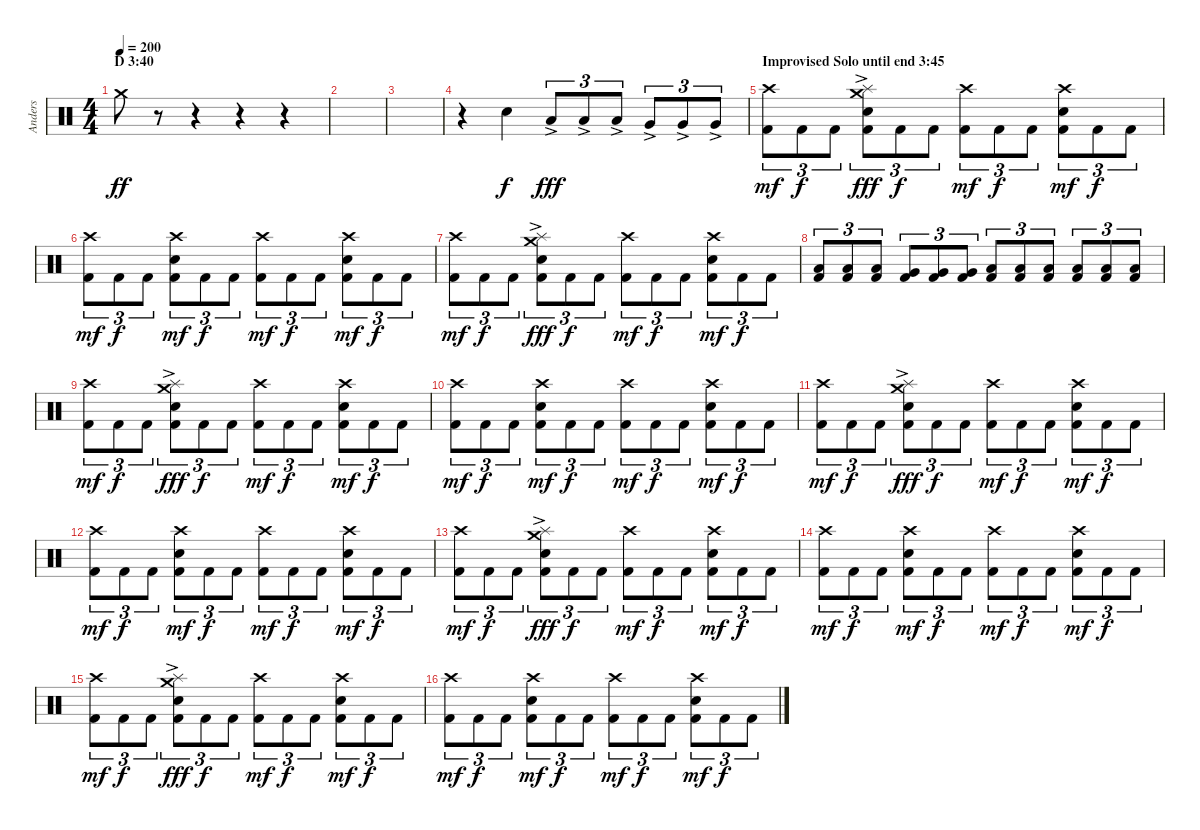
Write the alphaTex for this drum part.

\track ("Anders" "Anders") {instrument percussion}
\staff {score}
\articulation defaults
\ts (4 4)
\section ("" "D 3:40")
\tempo 200
\clef neutral
\ks c "Crash medium (hit)".8{dy ff}
r.8{volume 0} r.4 r.4 r.4 |
|
|
r.4{volume 16} "Electric Snare (hit)".4{dy f} "Low Tom (hit)"{ac}.8{tu (3 2) dy fff} "Low Tom (hit)"{ac}.8{tu (3 2)} "Low Tom (hit)"{ac}.8{tu (3 2)} "Very Low Tom (hit)"{ac}.8{tu (3 2)} "Very Low Tom (hit)"{ac}.8{tu (3 2)} "Very Low Tom (hit)"{ac}.8{tu (3 2)} |
\section ("" "Improvised Solo until end 3:45")
("Kick (hit) 2" "Crash high (hit)").8{tu (3 2) dy mf} "Kick (hit) 2".8{tu (3 2) dy f} "Kick (hit) 2".8{tu (3 2)} ("Kick (hit) 2" "Electric Snare (hit)" "Splash (hit)" "Crash medium (hit)"{ac}).8{tu (3 2) dy fff} "Kick (hit) 2".8{tu (3 2) dy f} "Kick (hit) 2".8{tu (3 2)} ("Kick (hit) 2" "Crash high (hit)").8{tu (3 2) dy mf} "Kick (hit) 2".8{tu (3 2) dy f} "Kick (hit) 2".8{tu (3 2)} ("Kick (hit) 2" "Electric Snare (hit)" "Crash high (hit)").8{tu (3 2) dy mf} "Kick (hit) 2".8{tu (3 2) dy f} "Kick (hit) 2".8{tu (3 2)} |
("Kick (hit) 2" "Crash high (hit)").8{tu (3 2) dy mf} "Kick (hit) 2".8{tu (3 2) dy f} "Kick (hit) 2".8{tu (3 2)} ("Kick (hit) 2" "Electric Snare (hit)" "Crash high (hit)").8{tu (3 2) dy mf} "Kick (hit) 2".8{tu (3 2) dy f} "Kick (hit) 2".8{tu (3 2)} ("Kick (hit) 2" "Crash high (hit)").8{tu (3 2) dy mf} "Kick (hit) 2".8{tu (3 2) dy f} "Kick (hit) 2".8{tu (3 2)} ("Kick (hit) 2" "Electric Snare (hit)" "Crash high (hit)").8{tu (3 2) dy mf} "Kick (hit) 2".8{tu (3 2) dy f} "Kick (hit) 2".8{tu (3 2)} |
("Kick (hit) 2" "Crash high (hit)").8{tu (3 2) dy mf} "Kick (hit) 2".8{tu (3 2) dy f} "Kick (hit) 2".8{tu (3 2)} ("Kick (hit) 2" "Electric Snare (hit)" "Splash (hit)" "Crash medium (hit)"{ac}).8{tu (3 2) dy fff} "Kick (hit) 2".8{tu (3 2) dy f} "Kick (hit) 2".8{tu (3 2)} ("Kick (hit) 2" "Crash high (hit)").8{tu (3 2) dy mf} "Kick (hit) 2".8{tu (3 2) dy f} "Kick (hit) 2".8{tu (3 2)} ("Kick (hit) 2" "Electric Snare (hit)" "Crash high (hit)").8{tu (3 2) dy mf} "Kick (hit) 2".8{tu (3 2) dy f} "Kick (hit) 2".8{tu (3 2)} |
("Kick (hit) 2" "Low Tom (hit)").8{tu (3 2)} ("Kick (hit) 2" "Low Tom (hit)").8{tu (3 2)} ("Kick (hit) 2" "Low Tom (hit)").8{tu (3 2)} ("Kick (hit) 2" "Very Low Tom (hit)").8{tu (3 2)} ("Kick (hit) 2" "Very Low Tom (hit)").8{tu (3 2)} ("Kick (hit) 2" "Very Low Tom (hit)").8{tu (3 2)} ("Kick (hit) 2" "Low Tom (hit)").8{tu (3 2)} ("Kick (hit) 2" "Low Tom (hit)").8{tu (3 2)} ("Kick (hit) 2" "Low Tom (hit)").8{tu (3 2)} ("Kick (hit) 2" "Low Floor Tom (hit)").8{tu (3 2)} ("Kick (hit) 2" "Low Floor Tom (hit)").8{tu (3 2)} ("Kick (hit) 2" "Low Floor Tom (hit)").8{tu (3 2)} |
("Kick (hit) 2" "Crash high (hit)").8{tu (3 2) dy mf} "Kick (hit) 2".8{tu (3 2) dy f} "Kick (hit) 2".8{tu (3 2)} ("Kick (hit) 2" "Electric Snare (hit)" "Splash (hit)" "Crash medium (hit)"{ac}).8{tu (3 2) dy fff} "Kick (hit) 2".8{tu (3 2) dy f} "Kick (hit) 2".8{tu (3 2)} ("Kick (hit) 2" "Crash high (hit)").8{tu (3 2) dy mf} "Kick (hit) 2".8{tu (3 2) dy f} "Kick (hit) 2".8{tu (3 2)} ("Kick (hit) 2" "Electric Snare (hit)" "Crash high (hit)").8{tu (3 2) dy mf} "Kick (hit) 2".8{tu (3 2) dy f} "Kick (hit) 2".8{tu (3 2)} |
("Kick (hit) 2" "Crash high (hit)").8{tu (3 2) dy mf} "Kick (hit) 2".8{tu (3 2) dy f} "Kick (hit) 2".8{tu (3 2)} ("Kick (hit) 2" "Electric Snare (hit)" "Crash high (hit)").8{tu (3 2) dy mf} "Kick (hit) 2".8{tu (3 2) dy f} "Kick (hit) 2".8{tu (3 2)} ("Kick (hit) 2" "Crash high (hit)").8{tu (3 2) dy mf} "Kick (hit) 2".8{tu (3 2) dy f} "Kick (hit) 2".8{tu (3 2)} ("Kick (hit) 2" "Electric Snare (hit)" "Crash high (hit)").8{tu (3 2) dy mf} "Kick (hit) 2".8{tu (3 2) dy f} "Kick (hit) 2".8{tu (3 2)} |
("Kick (hit) 2" "Crash high (hit)").8{tu (3 2) dy mf} "Kick (hit) 2".8{tu (3 2) dy f} "Kick (hit) 2".8{tu (3 2)} ("Kick (hit) 2" "Electric Snare (hit)" "Splash (hit)" "Crash medium (hit)"{ac}).8{tu (3 2) dy fff} "Kick (hit) 2".8{tu (3 2) dy f} "Kick (hit) 2".8{tu (3 2)} ("Kick (hit) 2" "Crash high (hit)").8{tu (3 2) dy mf} "Kick (hit) 2".8{tu (3 2) dy f} "Kick (hit) 2".8{tu (3 2)} ("Kick (hit) 2" "Electric Snare (hit)" "Crash high (hit)").8{tu (3 2) dy mf} "Kick (hit) 2".8{tu (3 2) dy f} "Kick (hit) 2".8{tu (3 2)} |
("Kick (hit) 2" "Crash high (hit)").8{tu (3 2) dy mf} "Kick (hit) 2".8{tu (3 2) dy f} "Kick (hit) 2".8{tu (3 2)} ("Kick (hit) 2" "Electric Snare (hit)" "Crash high (hit)").8{tu (3 2) dy mf} "Kick (hit) 2".8{tu (3 2) dy f} "Kick (hit) 2".8{tu (3 2)} ("Kick (hit) 2" "Crash high (hit)").8{tu (3 2) dy mf} "Kick (hit) 2".8{tu (3 2) dy f} "Kick (hit) 2".8{tu (3 2)} ("Kick (hit) 2" "Electric Snare (hit)" "Crash high (hit)").8{tu (3 2) dy mf} "Kick (hit) 2".8{tu (3 2) dy f} "Kick (hit) 2".8{tu (3 2)} |
("Kick (hit) 2" "Crash high (hit)").8{tu (3 2) dy mf} "Kick (hit) 2".8{tu (3 2) dy f} "Kick (hit) 2".8{tu (3 2)} ("Kick (hit) 2" "Electric Snare (hit)" "Splash (hit)" "Crash medium (hit)"{ac}).8{tu (3 2) dy fff} "Kick (hit) 2".8{tu (3 2) dy f} "Kick (hit) 2".8{tu (3 2)} ("Kick (hit) 2" "Crash high (hit)").8{tu (3 2) dy mf} "Kick (hit) 2".8{tu (3 2) dy f} "Kick (hit) 2".8{tu (3 2)} ("Kick (hit) 2" "Electric Snare (hit)" "Crash high (hit)").8{tu (3 2) dy mf} "Kick (hit) 2".8{tu (3 2) dy f} "Kick (hit) 2".8{tu (3 2)} |
("Kick (hit) 2" "Crash high (hit)").8{tu (3 2) dy mf} "Kick (hit) 2".8{tu (3 2) dy f} "Kick (hit) 2".8{tu (3 2)} ("Kick (hit) 2" "Electric Snare (hit)" "Crash high (hit)").8{tu (3 2) dy mf} "Kick (hit) 2".8{tu (3 2) dy f} "Kick (hit) 2".8{tu (3 2)} ("Kick (hit) 2" "Crash high (hit)").8{tu (3 2) dy mf} "Kick (hit) 2".8{tu (3 2) dy f} "Kick (hit) 2".8{tu (3 2)} ("Kick (hit) 2" "Electric Snare (hit)" "Crash high (hit)").8{tu (3 2) dy mf} "Kick (hit) 2".8{tu (3 2) dy f} "Kick (hit) 2".8{tu (3 2)} |
("Kick (hit) 2" "Crash high (hit)").8{tu (3 2) dy mf} "Kick (hit) 2".8{tu (3 2) dy f} "Kick (hit) 2".8{tu (3 2)} ("Kick (hit) 2" "Electric Snare (hit)" "Splash (hit)" "Crash medium (hit)"{ac}).8{tu (3 2) dy fff} "Kick (hit) 2".8{tu (3 2) dy f} "Kick (hit) 2".8{tu (3 2)} ("Kick (hit) 2" "Crash high (hit)").8{tu (3 2) dy mf} "Kick (hit) 2".8{tu (3 2) dy f} "Kick (hit) 2".8{tu (3 2)} ("Kick (hit) 2" "Electric Snare (hit)" "Crash high (hit)").8{tu (3 2) dy mf} "Kick (hit) 2".8{tu (3 2) dy f} "Kick (hit) 2".8{tu (3 2)} |
("Kick (hit) 2" "Crash high (hit)").8{tu (3 2) dy mf} "Kick (hit) 2".8{tu (3 2) dy f} "Kick (hit) 2".8{tu (3 2)} ("Kick (hit) 2" "Electric Snare (hit)" "Crash high (hit)").8{tu (3 2) dy mf} "Kick (hit) 2".8{tu (3 2) dy f} "Kick (hit) 2".8{tu (3 2)} ("Kick (hit) 2" "Crash high (hit)").8{tu (3 2) dy mf} "Kick (hit) 2".8{tu (3 2) dy f} "Kick (hit) 2".8{tu (3 2)} ("Kick (hit) 2" "Electric Snare (hit)" "Crash high (hit)").8{tu (3 2) dy mf} "Kick (hit) 2".8{tu (3 2) dy f} "Kick (hit) 2".8{tu (3 2)}
